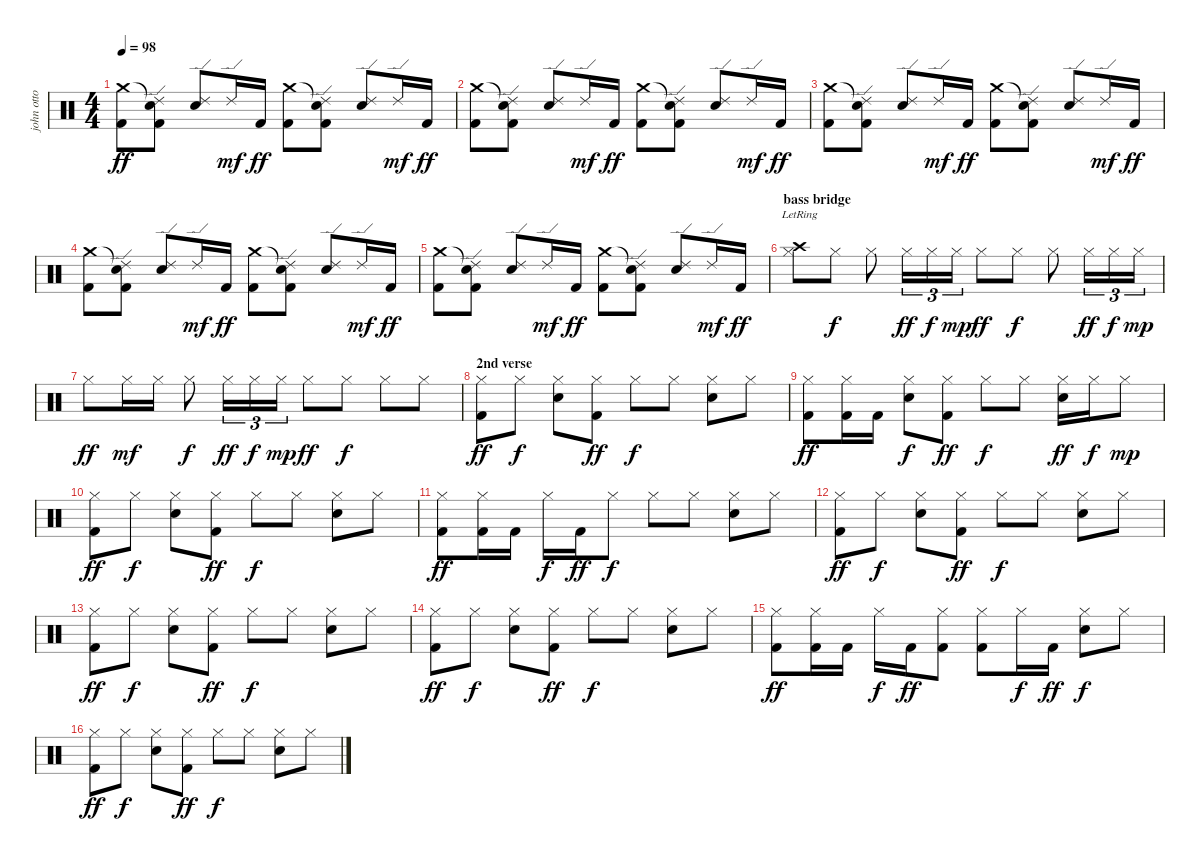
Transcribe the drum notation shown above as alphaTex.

\track ("john otto" "john otto") {instrument percussion}
\staff {score}
\articulation defaults
\ts (4 4)
\tempo 98
\clef neutral
\ks c
("Crash medium (hit)" "Kick (hit) 2").8{dy ff} ("Snare (hit)"{t} "Ride (edge) 2" "Kick (hit) 2").8 ("Ride (edge) 2" "Snare (hit) 2").8 "Ride (edge) 2".16{dy mf} "Kick (hit) 2".16{dy ff} ("Crash medium (hit)" "Kick (hit) 2").8 ("Snare (hit)"{t} "Ride (edge) 2" "Kick (hit) 2").8 ("Ride (edge) 2" "Snare (hit) 2").8 "Ride (edge) 2".16{dy mf} "Kick (hit) 2".16{dy ff} |
("Crash medium (hit)" "Kick (hit) 2").8 ("Snare (hit)"{t} "Ride (edge) 2" "Kick (hit) 2").8 ("Ride (edge) 2" "Snare (hit) 2").8 "Ride (edge) 2".16{dy mf} "Kick (hit) 2".16{dy ff} ("Crash medium (hit)" "Kick (hit) 2").8 ("Snare (hit)"{t} "Ride (edge) 2" "Kick (hit) 2").8 ("Ride (edge) 2" "Snare (hit) 2").8 "Ride (edge) 2".16{dy mf} "Kick (hit) 2".16{dy ff} |
("Crash medium (hit)" "Kick (hit) 2").8 ("Snare (hit)"{t} "Ride (edge) 2" "Kick (hit) 2").8 ("Ride (edge) 2" "Snare (hit) 2").8 "Ride (edge) 2".16{dy mf} "Kick (hit) 2".16{dy ff} ("Crash medium (hit)" "Kick (hit) 2").8 ("Snare (hit)"{t} "Ride (edge) 2" "Kick (hit) 2").8 ("Ride (edge) 2" "Snare (hit) 2").8 "Ride (edge) 2".16{dy mf} "Kick (hit) 2".16{dy ff} |
("Crash medium (hit)" "Kick (hit) 2").8 ("Snare (hit)"{t} "Ride (edge) 2" "Kick (hit) 2").8 ("Ride (edge) 2" "Snare (hit) 2").8 "Ride (edge) 2".16{dy mf} "Kick (hit) 2".16{dy ff} ("Crash medium (hit)" "Kick (hit) 2").8 ("Snare (hit)"{t} "Ride (edge) 2" "Kick (hit) 2").8 ("Ride (edge) 2" "Snare (hit) 2").8 "Ride (edge) 2".16{dy mf} "Kick (hit) 2".16{dy ff} |
("Crash medium (hit)" "Kick (hit) 2").8 ("Snare (hit)"{t} "Ride (edge) 2" "Kick (hit) 2").8 ("Ride (edge) 2" "Snare (hit) 2").8 "Ride (edge) 2".16{dy mf} "Kick (hit) 2".16{dy ff} ("Crash medium (hit)" "Kick (hit) 2").8 ("Snare (hit)"{t} "Ride (edge) 2" "Kick (hit) 2").8 ("Ride (edge) 2" "Snare (hit) 2").8 "Ride (edge) 2".16{dy mf} "Kick (hit) 2".16{dy ff} |
\section ("" "bass bridge")
("Crash high (hit)"{lr} "Hi-Hat (closed)").8 "Hi-Hat (closed)".8{dy f} "Hi-Hat (closed)".8 "Hi-Hat (closed)".16{tu (3 2) dy ff} "Hi-Hat (closed)".16{tu (3 2) dy f} "Hi-Hat (closed)".16{tu (3 2) dy mp} "Hi-Hat (closed)".8{dy ff} "Hi-Hat (closed)".8{dy f} "Hi-Hat (closed)".8 "Hi-Hat (closed)".16{tu (3 2) dy ff} "Hi-Hat (closed)".16{tu (3 2) dy f} "Hi-Hat (closed)".16{tu (3 2) dy mp} |
"Hi-Hat (closed)".8{dy ff} "Hi-Hat (closed)".16{dy mf} "Hi-Hat (closed)".16 "Hi-Hat (closed)".8{dy f} "Hi-Hat (closed)".16{tu (3 2) dy ff} "Hi-Hat (closed)".16{tu (3 2) dy f} "Hi-Hat (closed)".16{tu (3 2) dy mp} "Hi-Hat (closed)".8{dy ff} "Hi-Hat (closed)".8{dy f} "Hi-Hat (closed)".8 "Hi-Hat (closed)".8 |
\section ("" "2nd verse")
("Hi-Hat (closed)" "Kick (hit) 2").8{dy ff} "Hi-Hat (closed)".8{dy f} ("Hi-Hat (closed)" "Snare (hit) 2").8 ("Hi-Hat (closed)" "Kick (hit) 2").8{dy ff} "Hi-Hat (closed)".8{dy f} "Hi-Hat (closed)".8 ("Hi-Hat (closed)" "Snare (hit) 2").8 "Hi-Hat (closed)".8 |
("Hi-Hat (closed)" "Kick (hit) 2").8{dy ff} ("Hi-Hat (closed)" "Kick (hit) 2").16 "Kick (hit) 2".16 ("Hi-Hat (closed)" "Snare (hit) 2").8{dy f} ("Hi-Hat (closed)" "Kick (hit) 2").8{dy ff} "Hi-Hat (closed)".8{dy f} "Hi-Hat (closed)".8 ("Hi-Hat (closed)" "Snare (hit) 2").16{dy ff} "Hi-Hat (closed)".16{dy f} "Hi-Hat (closed)".8{dy mp} |
("Hi-Hat (closed)" "Kick (hit) 2").8{dy ff} "Hi-Hat (closed)".8{dy f} ("Hi-Hat (closed)" "Snare (hit) 2").8 ("Hi-Hat (closed)" "Kick (hit) 2").8{dy ff} "Hi-Hat (closed)".8{dy f} "Hi-Hat (closed)".8 ("Hi-Hat (closed)" "Snare (hit) 2").8 "Hi-Hat (closed)".8 |
("Hi-Hat (closed)" "Kick (hit) 2").8{dy ff} ("Hi-Hat (closed)" "Kick (hit) 2").16 "Kick (hit) 2".16 "Hi-Hat (closed)".16{dy f} "Kick (hit) 2".16{dy ff} "Hi-Hat (closed)".8{dy f} "Hi-Hat (closed)".8 "Hi-Hat (closed)".8 ("Hi-Hat (closed)" "Snare (hit) 2").8 "Hi-Hat (closed)".8 |
("Hi-Hat (closed)" "Kick (hit) 2").8{dy ff} "Hi-Hat (closed)".8{dy f} ("Hi-Hat (closed)" "Snare (hit) 2").8 ("Hi-Hat (closed)" "Kick (hit) 2").8{dy ff} "Hi-Hat (closed)".8{dy f} "Hi-Hat (closed)".8 ("Hi-Hat (closed)" "Snare (hit) 2").8 "Hi-Hat (closed)".8 |
("Hi-Hat (closed)" "Kick (hit) 2").8{dy ff} "Hi-Hat (closed)".8{dy f} ("Hi-Hat (closed)" "Snare (hit) 2").8 ("Hi-Hat (closed)" "Kick (hit) 2").8{dy ff} "Hi-Hat (closed)".8{dy f} "Hi-Hat (closed)".8 ("Hi-Hat (closed)" "Snare (hit) 2").8 "Hi-Hat (closed)".8 |
("Hi-Hat (closed)" "Kick (hit) 2").8{dy ff} "Hi-Hat (closed)".8{dy f} ("Hi-Hat (closed)" "Snare (hit) 2").8 ("Hi-Hat (closed)" "Kick (hit) 2").8{dy ff} "Hi-Hat (closed)".8{dy f} "Hi-Hat (closed)".8 ("Hi-Hat (closed)" "Snare (hit) 2").8 "Hi-Hat (closed)".8 |
("Hi-Hat (closed)" "Kick (hit) 2").8{dy ff} ("Hi-Hat (closed)" "Kick (hit) 2").16 "Kick (hit) 2".16 "Hi-Hat (closed)".16{dy f} "Kick (hit) 2".16{dy ff} ("Hi-Hat (closed)" "Kick (hit) 2").8 ("Hi-Hat (closed)" "Kick (hit) 2").8 "Hi-Hat (closed)".16{dy f} "Kick (hit) 2".16{dy ff} ("Hi-Hat (closed)" "Snare (hit) 2").8{dy f} "Hi-Hat (closed)".8 |
("Hi-Hat (closed)" "Kick (hit) 2").8{dy ff} "Hi-Hat (closed)".8{dy f} ("Hi-Hat (closed)" "Snare (hit) 2").8 ("Hi-Hat (closed)" "Kick (hit) 2").8{dy ff} "Hi-Hat (closed)".8{dy f} "Hi-Hat (closed)".8 ("Hi-Hat (closed)" "Snare (hit) 2").8 "Hi-Hat (closed)".8
